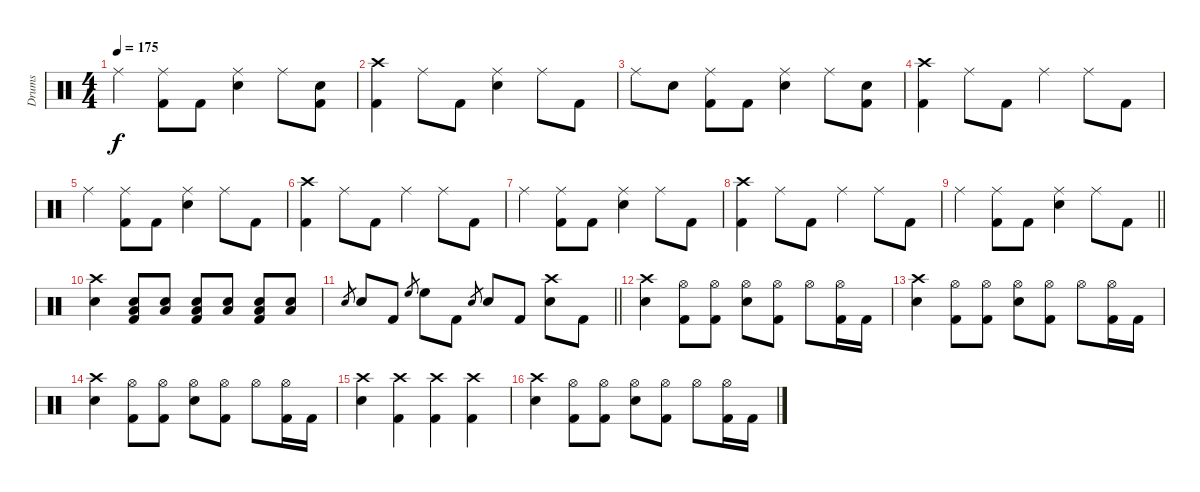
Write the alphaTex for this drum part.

\track ("Drums" "Drums") {instrument percussion}
\staff {score}
\articulation defaults
\ts (4 4)
\tempo 175
\clef neutral
\ks c "Ride (middle)".4{dy f}
("Ride (middle)" "Kick (hit) 2").8 "Kick (hit) 2".8 ("Ride (middle)" "Snare (hit) 2").4 "Ride (middle)".8 ("Snare (hit) 2" "Kick (hit) 2").8 |
("Crash high (hit)" "Kick (hit) 2").4 "Ride (middle)".8 "Kick (hit) 2".8 ("Ride (middle)" "Snare (hit) 2").4 "Ride (middle)".8 "Kick (hit) 2".8 |
"Ride (middle)".8 "Snare (hit) 2".8 ("Ride (middle)" "Kick (hit) 2").8 "Kick (hit) 2".8 ("Ride (middle)" "Snare (hit) 2").4 "Ride (middle)".8 ("Snare (hit) 2" "Kick (hit) 2").8 |
("Crash high (hit)" "Kick (hit) 2").4 "Ride (middle)".8 "Kick (hit) 2".8 "Ride (middle)".4 "Ride (middle)".8 "Kick (hit) 2".8 |
"Ride (middle)".4 ("Ride (middle)" "Kick (hit) 2").8 "Kick (hit) 2".8 ("Ride (middle)" "Snare (hit) 2").4 "Ride (middle)".8 "Kick (hit) 2".8 |
("Crash high (hit)" "Kick (hit) 2").4 "Ride (middle)".8 "Kick (hit) 2".8 "Ride (middle)".4 "Ride (middle)".8 "Kick (hit) 2".8 |
"Ride (middle)".4 ("Ride (middle)" "Kick (hit) 2").8 "Kick (hit) 2".8 ("Ride (middle)" "Snare (hit) 2").4 "Ride (middle)".8 "Kick (hit) 2".8 |
("Crash high (hit)" "Kick (hit) 2").4 "Ride (middle)".8 "Kick (hit) 2".8 "Ride (middle)".4 "Ride (middle)".8 "Kick (hit) 2".8 |
\barLineRight lightlight "Ride (middle)".4
("Ride (middle)" "Kick (hit) 2").8 "Kick (hit) 2".8 ("Ride (middle)" "Snare (hit) 2").4 "Ride (middle)".8 "Kick (hit) 2".8 |
("Crash high (hit)" "Snare (hit) 2").4 ("Snare (hit) 2" "Low Floor Tom (hit)" "Kick (hit) 2").8 ("Snare (hit) 2" "Low Floor Tom (hit)").8 ("Snare (hit) 2" "Low Floor Tom (hit)" "Kick (hit) 2").8 ("Snare (hit) 2" "Low Floor Tom (hit)").8 ("Snare (hit) 2" "Low Floor Tom (hit)" "Kick (hit) 2").8 ("Snare (hit) 2" "Low Floor Tom (hit)").8 |
\barLineRight lightlight "Snare (hit) 2".8{gr} "Snare (hit) 2".8 "Kick (hit) 2".8 "High Floor Tom (hit)".8{gr} "High Floor Tom (hit)".8 "Kick (hit) 2".8 "Snare (hit) 2".8{gr} "Snare (hit) 2".8 "Kick (hit) 2".8
("Crash high (hit)" "Snare (hit) 2").8 "Kick (hit) 2".8 |
("Crash high (hit)" "Snare (hit) 2").4 ("Hi-Hat (open)" "Kick (hit) 2").8 ("Hi-Hat (open)" "Kick (hit) 2").8 ("Hi-Hat (open)" "Snare (hit) 2").8 ("Hi-Hat (open)" "Kick (hit) 2").8 "Hi-Hat (open)".8 ("Hi-Hat (open)" "Kick (hit) 2").16 "Kick (hit) 2".16 |
("Crash high (hit)" "Snare (hit) 2").4 ("Hi-Hat (open)" "Kick (hit) 2").8 ("Hi-Hat (open)" "Kick (hit) 2").8 ("Hi-Hat (open)" "Snare (hit) 2").8 ("Hi-Hat (open)" "Kick (hit) 2").8 "Hi-Hat (open)".8 ("Hi-Hat (open)" "Kick (hit) 2").16 "Kick (hit) 2".16 |
("Crash high (hit)" "Snare (hit) 2").4 ("Hi-Hat (open)" "Kick (hit) 2").8 ("Hi-Hat (open)" "Kick (hit) 2").8 ("Hi-Hat (open)" "Snare (hit) 2").8 ("Hi-Hat (open)" "Kick (hit) 2").8 "Hi-Hat (open)".8 ("Hi-Hat (open)" "Kick (hit) 2").16 "Kick (hit) 2".16 |
("Crash high (hit)" "Snare (hit) 2").4 ("Crash high (hit)" "Kick (hit) 2").4 ("Crash high (hit)" "Kick (hit) 2").4 ("Crash high (hit)" "Kick (hit) 2").4 |
("Crash high (hit)" "Snare (hit) 2").4 ("Hi-Hat (open)" "Kick (hit) 2").8 ("Hi-Hat (open)" "Kick (hit) 2").8 ("Hi-Hat (open)" "Snare (hit) 2").8 ("Hi-Hat (open)" "Kick (hit) 2").8 "Hi-Hat (open)".8 ("Hi-Hat (open)" "Kick (hit) 2").16 "Kick (hit) 2".16
